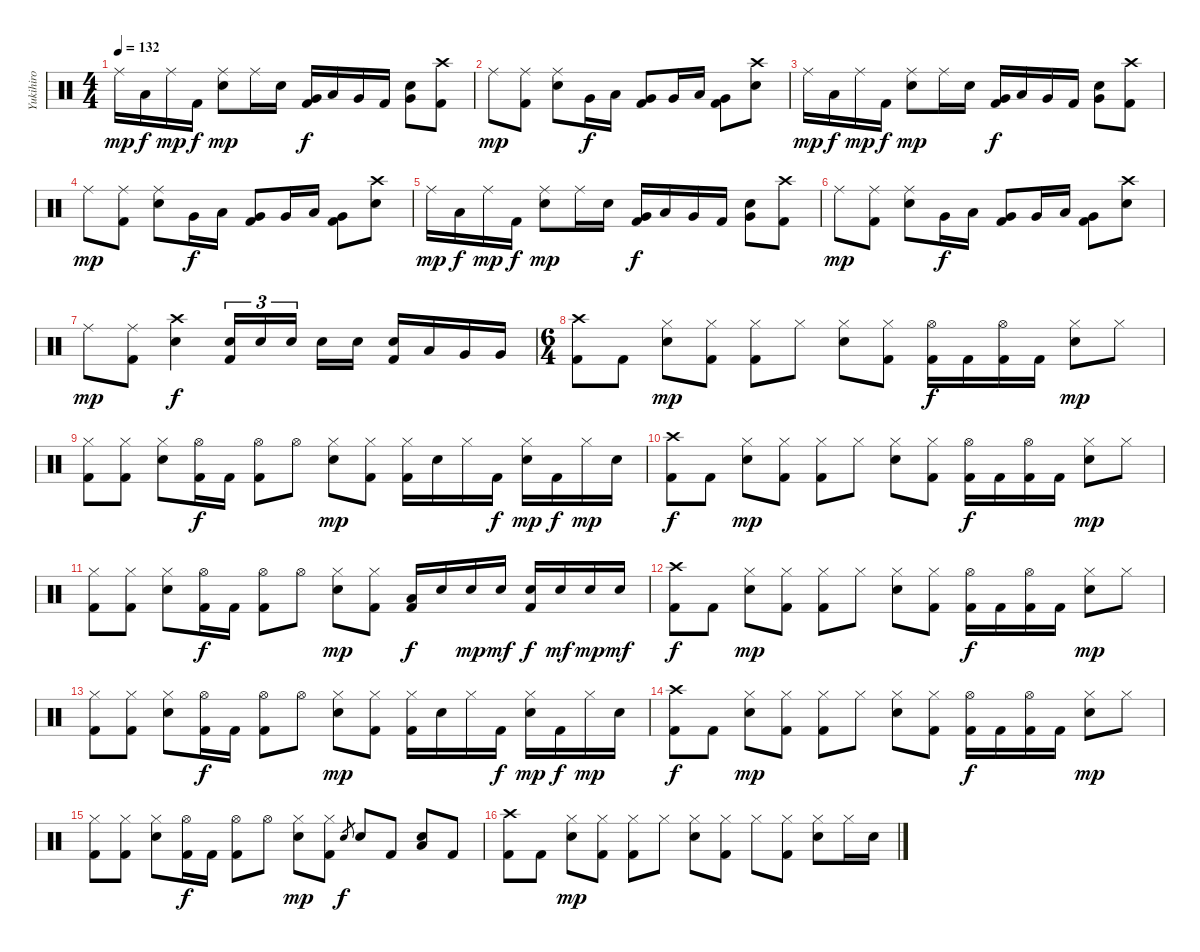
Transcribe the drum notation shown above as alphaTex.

\track ("Yukihiro" "Yukihiro") {instrument percussion}
\staff {score}
\articulation defaults
\ts (4 4)
\tempo 132
\clef neutral
\ks c "Ride (middle)".16{dy mp} "Low Tom (hit)".16{dy f} "Ride (middle)".16{dy mp} "Kick (hit) 2".16{dy f}
("Ride (middle)" "Electric Snare (hit)").8{dy mp} "Ride (middle)".16 "Electric Snare (hit)".16 ("Very Low Tom (hit)" "Kick (hit) 2").16{dy f} "Low Tom (hit)".16 "Very Low Tom (hit)".16 "Kick (hit) 2".16 ("Electric Snare (hit)" "Very Low Tom (hit)").8 ("Crash high (hit)" "Kick (hit) 2").8 |
"Ride (middle)".8{dy mp} ("Ride (middle)" "Kick (hit) 2").8 ("Ride (middle)" "Electric Snare (hit)").8 "Very Low Tom (hit)".16{dy f} "Low Tom (hit)".16 ("Very Low Tom (hit)" "Kick (hit) 2").8 "Very Low Tom (hit)".16 "Low Tom (hit)".16 ("Very Low Tom (hit)" "Kick (hit) 2").8 ("Crash high (hit)" "Electric Snare (hit)").8 |
"Ride (middle)".16{dy mp} "Low Tom (hit)".16{dy f} "Ride (middle)".16{dy mp} "Kick (hit) 2".16{dy f} ("Ride (middle)" "Electric Snare (hit)").8{dy mp} "Ride (middle)".16 "Electric Snare (hit)".16 ("Very Low Tom (hit)" "Kick (hit) 2").16{dy f} "Low Tom (hit)".16 "Very Low Tom (hit)".16 "Kick (hit) 2".16 ("Electric Snare (hit)" "Very Low Tom (hit)").8 ("Crash high (hit)" "Kick (hit) 2").8 |
"Ride (middle)".8{dy mp} ("Ride (middle)" "Kick (hit) 2").8 ("Ride (middle)" "Electric Snare (hit)").8 "Very Low Tom (hit)".16{dy f} "Low Tom (hit)".16 ("Very Low Tom (hit)" "Kick (hit) 2").8 "Very Low Tom (hit)".16 "Low Tom (hit)".16 ("Very Low Tom (hit)" "Kick (hit) 2").8 ("Crash high (hit)" "Electric Snare (hit)").8 |
"Ride (middle)".16{dy mp} "Low Tom (hit)".16{dy f} "Ride (middle)".16{dy mp} "Kick (hit) 2".16{dy f} ("Ride (middle)" "Electric Snare (hit)").8{dy mp} "Ride (middle)".16 "Electric Snare (hit)".16 ("Very Low Tom (hit)" "Kick (hit) 2").16{dy f} "Low Tom (hit)".16 "Very Low Tom (hit)".16 "Kick (hit) 2".16 ("Electric Snare (hit)" "Very Low Tom (hit)").8 ("Crash high (hit)" "Kick (hit) 2").8 |
"Ride (middle)".8{dy mp} ("Ride (middle)" "Kick (hit) 2").8 ("Ride (middle)" "Electric Snare (hit)").8 "Very Low Tom (hit)".16{dy f} "Low Tom (hit)".16 ("Very Low Tom (hit)" "Kick (hit) 2").8 "Very Low Tom (hit)".16 "Low Tom (hit)".16 ("Very Low Tom (hit)" "Kick (hit) 2").8 ("Crash high (hit)" "Electric Snare (hit)").8 |
"Ride (middle)".8{dy mp} ("Ride (middle)" "Kick (hit) 2").8 ("Crash high (hit)" "Electric Snare (hit)").4{dy f} ("Electric Snare (hit)" "Kick (hit) 2").16{tu (3 2)} "Electric Snare (hit)".16{tu (3 2)} "Electric Snare (hit)".16{tu (3 2)} "Electric Snare (hit)".16 "Electric Snare (hit)".16 ("Electric Snare (hit)" "Kick (hit) 2").16 "Low Tom (hit)".16 "Very Low Tom (hit)".16 "Very Low Tom (hit)".16 |
\ts (6 4)
("Crash high (hit)" "Kick (hit) 2").8 "Kick (hit) 2".8 ("Hi-Hat (closed)" "Electric Snare (hit)").8{dy mp} ("Hi-Hat (closed)" "Kick (hit) 2").8 ("Hi-Hat (closed)" "Kick (hit) 2").8 "Hi-Hat (closed)".8 ("Hi-Hat (closed)" "Electric Snare (hit)").8 ("Hi-Hat (closed)" "Kick (hit) 2").8 ("Hi-Hat (open)" "Kick (hit) 2").16{dy f} "Kick (hit) 2".16 ("Hi-Hat (open)" "Kick (hit) 2").16 "Kick (hit) 2".16 ("Hi-Hat (closed)" "Electric Snare (hit)").8{dy mp} "Hi-Hat (closed)".8 |
("Hi-Hat (closed)" "Kick (hit) 2").8 ("Hi-Hat (closed)" "Kick (hit) 2").8 ("Hi-Hat (closed)" "Electric Snare (hit)").8 ("Hi-Hat (open)" "Kick (hit) 2").16{dy f} "Kick (hit) 2".16 ("Hi-Hat (open)" "Kick (hit) 2").8 "Hi-Hat (open)".8 ("Hi-Hat (closed)" "Electric Snare (hit)").8{dy mp} ("Hi-Hat (closed)" "Kick (hit) 2").8 ("Hi-Hat (closed)" "Kick (hit) 2").16 "Electric Snare (hit)".16 "Hi-Hat (closed)".16 "Kick (hit) 2".16{dy f} ("Hi-Hat (closed)" "Electric Snare (hit)").16{dy mp} "Kick (hit) 2".16{dy f} "Hi-Hat (closed)".16{dy mp} "Electric Snare (hit)".16 |
("Crash high (hit)" "Kick (hit) 2").8{dy f} "Kick (hit) 2".8 ("Hi-Hat (closed)" "Electric Snare (hit)").8{dy mp} ("Hi-Hat (closed)" "Kick (hit) 2").8 ("Hi-Hat (closed)" "Kick (hit) 2").8 "Hi-Hat (closed)".8 ("Hi-Hat (closed)" "Electric Snare (hit)").8 ("Hi-Hat (closed)" "Kick (hit) 2").8 ("Hi-Hat (open)" "Kick (hit) 2").16{dy f} "Kick (hit) 2".16 ("Hi-Hat (open)" "Kick (hit) 2").16 "Kick (hit) 2".16 ("Hi-Hat (closed)" "Electric Snare (hit)").8{dy mp} "Hi-Hat (closed)".8 |
("Hi-Hat (closed)" "Kick (hit) 2").8 ("Hi-Hat (closed)" "Kick (hit) 2").8 ("Hi-Hat (closed)" "Electric Snare (hit)").8 ("Hi-Hat (open)" "Kick (hit) 2").16{dy f} "Kick (hit) 2".16 ("Hi-Hat (open)" "Kick (hit) 2").8 "Hi-Hat (open)".8 ("Hi-Hat (closed)" "Electric Snare (hit)").8{dy mp} ("Hi-Hat (closed)" "Kick (hit) 2").8 ("Low Tom (hit)" "Kick (hit) 2").16{dy f} "Electric Snare (hit)".16 "Electric Snare (hit)".16{dy mp} "Electric Snare (hit)".16{dy mf} ("Electric Snare (hit)" "Kick (hit) 2").16{dy f} "Electric Snare (hit)".16{dy mf} "Electric Snare (hit)".16{dy mp} "Electric Snare (hit)".16{dy mf} |
("Crash high (hit)" "Kick (hit) 2").8{dy f} "Kick (hit) 2".8 ("Hi-Hat (closed)" "Electric Snare (hit)").8{dy mp} ("Hi-Hat (closed)" "Kick (hit) 2").8 ("Hi-Hat (closed)" "Kick (hit) 2").8 "Hi-Hat (closed)".8 ("Hi-Hat (closed)" "Electric Snare (hit)").8 ("Hi-Hat (closed)" "Kick (hit) 2").8 ("Hi-Hat (open)" "Kick (hit) 2").16{dy f} "Kick (hit) 2".16 ("Hi-Hat (open)" "Kick (hit) 2").16 "Kick (hit) 2".16 ("Hi-Hat (closed)" "Electric Snare (hit)").8{dy mp} "Hi-Hat (closed)".8 |
("Hi-Hat (closed)" "Kick (hit) 2").8 ("Hi-Hat (closed)" "Kick (hit) 2").8 ("Hi-Hat (closed)" "Electric Snare (hit)").8 ("Hi-Hat (open)" "Kick (hit) 2").16{dy f} "Kick (hit) 2".16 ("Hi-Hat (open)" "Kick (hit) 2").8 "Hi-Hat (open)".8 ("Hi-Hat (closed)" "Electric Snare (hit)").8{dy mp} ("Hi-Hat (closed)" "Kick (hit) 2").8 ("Hi-Hat (closed)" "Kick (hit) 2").16 "Electric Snare (hit)".16 "Hi-Hat (closed)".16 "Kick (hit) 2".16{dy f} ("Hi-Hat (closed)" "Electric Snare (hit)").16{dy mp} "Kick (hit) 2".16{dy f} "Hi-Hat (closed)".16{dy mp} "Electric Snare (hit)".16 |
("Crash high (hit)" "Kick (hit) 2").8{dy f} "Kick (hit) 2".8 ("Hi-Hat (closed)" "Electric Snare (hit)").8{dy mp} ("Hi-Hat (closed)" "Kick (hit) 2").8 ("Hi-Hat (closed)" "Kick (hit) 2").8 "Hi-Hat (closed)".8 ("Hi-Hat (closed)" "Electric Snare (hit)").8 ("Hi-Hat (closed)" "Kick (hit) 2").8 ("Hi-Hat (open)" "Kick (hit) 2").16{dy f} "Kick (hit) 2".16 ("Hi-Hat (open)" "Kick (hit) 2").16 "Kick (hit) 2".16 ("Hi-Hat (closed)" "Electric Snare (hit)").8{dy mp} "Hi-Hat (closed)".8 |
("Hi-Hat (closed)" "Kick (hit) 2").8 ("Hi-Hat (closed)" "Kick (hit) 2").8 ("Hi-Hat (closed)" "Electric Snare (hit)").8 ("Hi-Hat (open)" "Kick (hit) 2").16{dy f} "Kick (hit) 2".16 ("Hi-Hat (open)" "Kick (hit) 2").8 "Hi-Hat (open)".8 ("Hi-Hat (closed)" "Electric Snare (hit)").8{dy mp} ("Hi-Hat (closed)" "Kick (hit) 2").8 "Electric Snare (hit)".8{gr dy f} "Electric Snare (hit)".8 "Kick (hit) 2".8 ("Electric Snare (hit)" "Low Tom (hit)").8 "Kick (hit) 2".8 |
("Crash high (hit)" "Kick (hit) 2").8 "Kick (hit) 2".8 ("Hi-Hat (closed)" "Electric Snare (hit)").8{dy mp} ("Hi-Hat (closed)" "Kick (hit) 2").8 ("Hi-Hat (closed)" "Kick (hit) 2").8 "Hi-Hat (closed)".8 ("Hi-Hat (closed)" "Electric Snare (hit)").8 ("Hi-Hat (closed)" "Kick (hit) 2").8 "Hi-Hat (closed)".8 ("Hi-Hat (closed)" "Kick (hit) 2").8 ("Hi-Hat (closed)" "Electric Snare (hit)").8 "Hi-Hat (closed)".16 "Electric Snare (hit)".16
